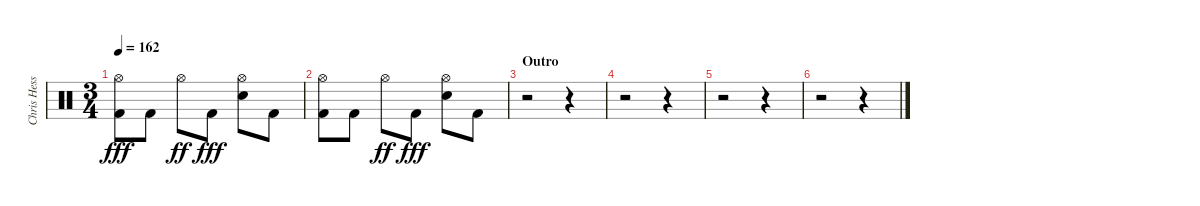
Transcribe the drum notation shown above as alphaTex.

\track ("Chris Hesse" "Chris Hess") {instrument percussion}
\staff {score}
\articulation defaults
\ts (3 4)
\tempo 162
\clef neutral
\ks c
("Hi-Hat (open)" "Kick (hit) 2").8{dy fff} "Kick (hit) 2".8 "Hi-Hat (open)".8{dy ff} "Kick (hit) 2".8{dy fff} ("Hi-Hat (open)" "Snare (hit) 2").8 "Kick (hit) 2".8 |
("Hi-Hat (open)" "Kick (hit) 2").8 "Kick (hit) 2".8 "Hi-Hat (open)".8{dy ff} "Kick (hit) 2".8{dy fff} ("Hi-Hat (open)" "Snare (hit) 2").8 "Kick (hit) 2".8 |
\section ("" "Outro")
r.2 r.4 |
r.2 r.4 |
r.2 r.4 |
r.2 r.4
